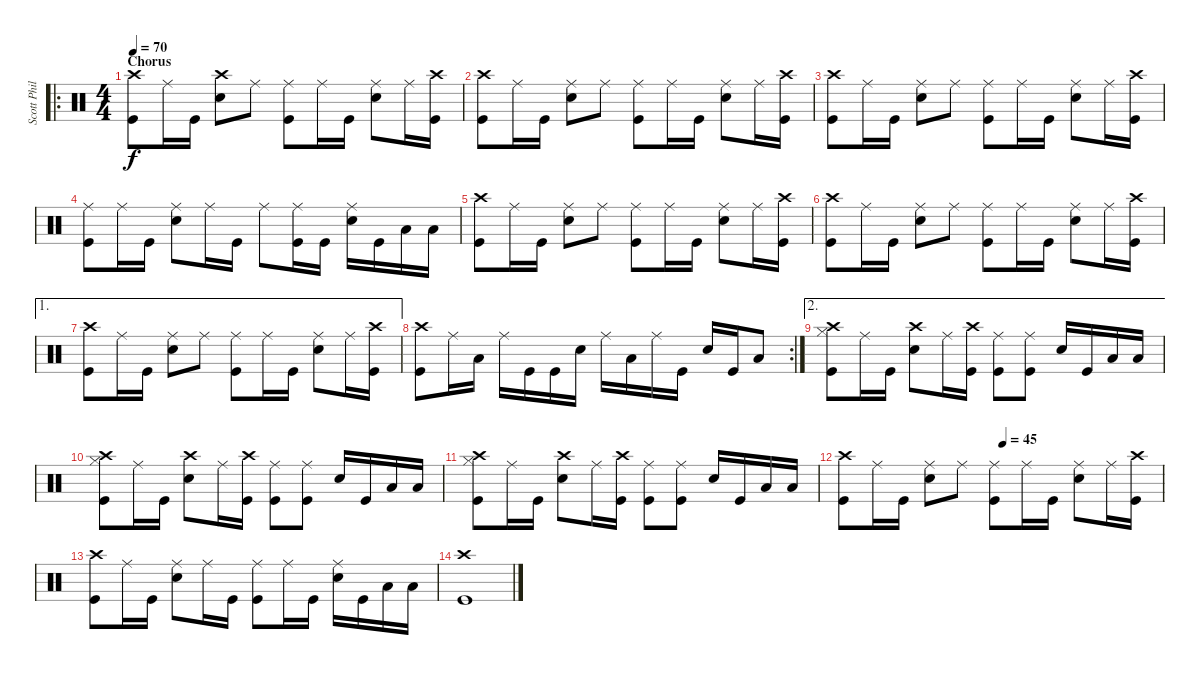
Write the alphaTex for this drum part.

\track ("Scott Phillips" "Scott Phil") {instrument percussion}
\staff {score}
\articulation defaults
\ro
\ts (4 4)
\section ("" "Chorus")
\tempo 70
\clef neutral
\ks c
("Crash high (hit)" "Kick (hit)").8{dy f} "Ride (middle)".16 "Kick (hit)".16 ("Crash high (hit)" "Snare (hit) 2").8 "Ride (middle)".8 ("Ride (middle)" "Kick (hit)").8 "Ride (middle)".16 "Kick (hit)".16 ("Ride (middle)" "Snare (hit) 2").8 "Ride (middle)".16 ("Crash high (hit)" "Kick (hit)").16 |
("Crash high (hit)" "Kick (hit)").8 "Ride (middle)".16 "Kick (hit)".16 ("Ride (middle)" "Snare (hit) 2").8 "Ride (middle)".8 ("Ride (middle)" "Kick (hit)").8 "Ride (middle)".16 "Kick (hit)".16 ("Ride (middle)" "Snare (hit) 2").8 "Ride (middle)".16 ("Crash high (hit)" "Kick (hit)").16 |
("Crash high (hit)" "Kick (hit)").8 "Ride (middle)".16 "Kick (hit)".16 ("Ride (middle)" "Snare (hit) 2").8 "Ride (middle)".8 ("Ride (middle)" "Kick (hit)").8 "Ride (middle)".16 "Kick (hit)".16 ("Ride (middle)" "Snare (hit) 2").8 "Ride (middle)".16 ("Crash high (hit)" "Kick (hit)").16 |
("Ride (middle)" "Kick (hit)").8 "Ride (middle)".16 "Kick (hit)".16 ("Ride (middle)" "Snare (hit) 2").8 "Ride (middle)".16 "Kick (hit)".16 "Ride (middle)".8 ("Ride (middle)" "Kick (hit)").16 "Kick (hit)".16 ("Ride (middle)" "Snare (hit) 2").16 "Kick (hit)".16 "Low Tom (hit)".16 "Low Tom (hit)".16 |
("Crash high (hit)" "Kick (hit)").8 "Ride (middle)".16 "Kick (hit)".16 ("Ride (middle)" "Snare (hit) 2").8 "Ride (middle)".8 ("Ride (middle)" "Kick (hit)").8 "Ride (middle)".16 "Kick (hit)".16 ("Ride (middle)" "Snare (hit) 2").8 "Ride (middle)".16 ("Crash high (hit)" "Kick (hit)").16 |
("Crash high (hit)" "Kick (hit)").8 "Ride (middle)".16 "Kick (hit)".16 ("Ride (middle)" "Snare (hit) 2").8 "Ride (middle)".8 ("Ride (middle)" "Kick (hit)").8 "Ride (middle)".16 "Kick (hit)".16 ("Ride (middle)" "Snare (hit) 2").8 "Ride (middle)".16 ("Crash high (hit)" "Kick (hit)").16 |
\ae 1
("Crash high (hit)" "Kick (hit)").8 "Ride (middle)".16 "Kick (hit)".16 ("Ride (middle)" "Snare (hit) 2").8 "Ride (middle)".8 ("Ride (middle)" "Kick (hit)").8 "Ride (middle)".16 "Kick (hit)".16 ("Ride (middle)" "Snare (hit) 2").8 "Ride (middle)".16 ("Crash high (hit)" "Kick (hit)").16 |
\rc 2
("Crash high (hit)" "Kick (hit)").8 "Ride (middle)".16 "Low Tom (hit)".16 "Ride (middle)".16 "Kick (hit)".16 "Kick (hit)".16 "Snare (hit) 2".16 "Ride (middle)".16 "Low Tom (hit)".16 "Ride (middle)".16 "Kick (hit)".16 "Snare (hit) 2".16 "Kick (hit)".16 "Low Tom (hit)".8 |
\ae 2
("Crash high (hit)" "Hi-Hat (closed)" "Kick (hit)").8 "Ride (middle)".16 "Kick (hit)".16 ("Crash high (hit)" "Snare (hit) 2").8 "Ride (middle)".16 ("Crash high (hit)" "Kick (hit)").16 ("Ride (middle)" "Kick (hit)").8 ("Ride (middle)" "Kick (hit)").8 "Snare (hit) 2".16 "Kick (hit)".16 "Low Tom (hit)".16 "Low Tom (hit)".16 |
("Crash high (hit)" "Hi-Hat (closed)" "Kick (hit)").8 "Ride (middle)".16 "Kick (hit)".16 ("Crash high (hit)" "Snare (hit) 2").8 "Ride (middle)".16 ("Crash high (hit)" "Kick (hit)").16 ("Ride (middle)" "Kick (hit)").8 ("Ride (middle)" "Kick (hit)").8 "Snare (hit) 2".16 "Kick (hit)".16 "Low Tom (hit)".16 "Low Tom (hit)".16 |
("Crash high (hit)" "Hi-Hat (closed)" "Kick (hit)").8 "Ride (middle)".16 "Kick (hit)".16 ("Crash high (hit)" "Snare (hit) 2").8 "Ride (middle)".16 ("Crash high (hit)" "Kick (hit)").16 ("Ride (middle)" "Kick (hit)").8 ("Ride (middle)" "Kick (hit)").8 "Snare (hit) 2".16 "Kick (hit)".16 "Low Tom (hit)".16 "Low Tom (hit)".16 |
\tempo (45 0.5)
("Crash high (hit)" "Kick (hit)").8 "Ride (middle)".16 "Kick (hit)".16 ("Ride (middle)" "Snare (hit) 2").8 "Ride (middle)".8 ("Ride (middle)" "Kick (hit)").8 "Ride (middle)".16 "Kick (hit)".16 ("Ride (middle)" "Snare (hit) 2").8 "Ride (middle)".16 ("Crash high (hit)" "Kick (hit)").16 |
("Crash high (hit)" "Kick (hit)").8 "Ride (middle)".16 "Kick (hit)".16 ("Ride (middle)" "Snare (hit) 2").8 "Ride (middle)".16 "Kick (hit)".16 ("Ride (middle)" "Kick (hit)").8 "Ride (middle)".16 "Kick (hit)".16 ("Ride (middle)" "Snare (hit) 2").16 "Kick (hit)".16 "Low Tom (hit)".16 "Low Tom (hit)".16 |
("Crash high (hit)" "Kick (hit)").1
